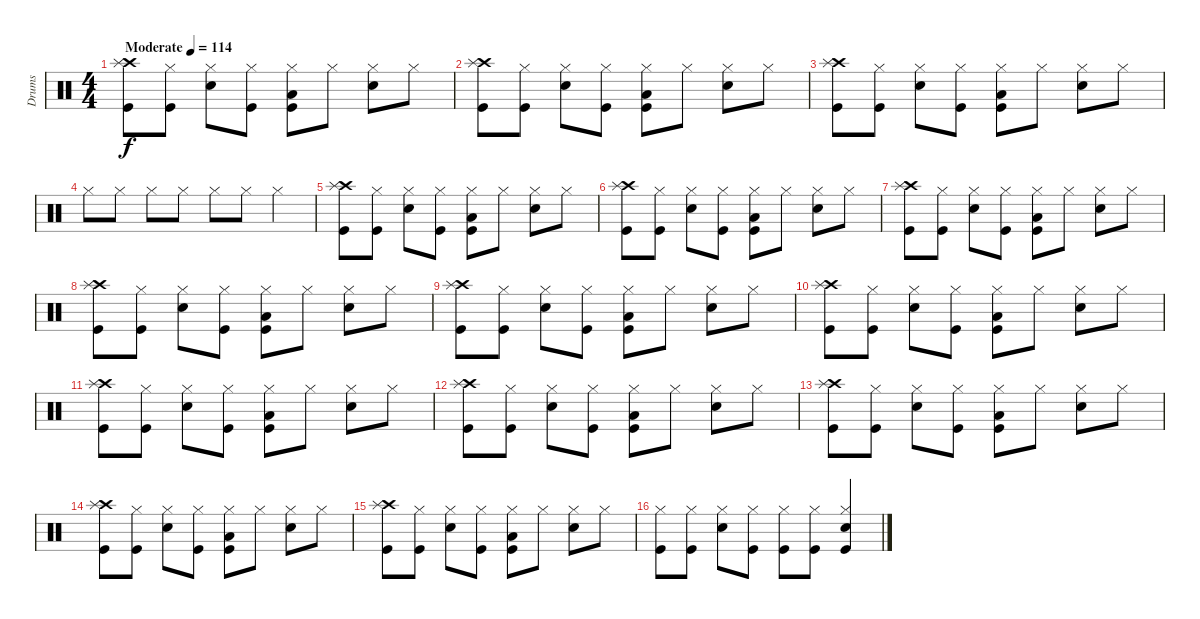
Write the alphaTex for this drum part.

\track ("Drums" "Drums") {instrument percussion}
\staff {score}
\articulation defaults
\ts (4 4)
\tempo (114 "Moderate")
\clef neutral
\ks c
("Crash high (hit)" "Splash (hit)" "Kick (hit)").8{dy f} ("Hi-Hat (closed)" "Kick (hit)").8 ("Hi-Hat (closed)" "Snare (hit) 2").8 ("Hi-Hat (closed)" "Kick (hit)").8 ("Hi-Hat (closed)" "Low Floor Tom (hit)" "Kick (hit)").8 "Hi-Hat (closed)".8 ("Hi-Hat (closed)" "Snare (hit) 2").8 "Hi-Hat (closed)".8 |
("Crash high (hit)" "Splash (hit)" "Kick (hit)").8 ("Hi-Hat (closed)" "Kick (hit)").8 ("Hi-Hat (closed)" "Snare (hit) 2").8 ("Hi-Hat (closed)" "Kick (hit)").8 ("Hi-Hat (closed)" "Low Floor Tom (hit)" "Kick (hit)").8 "Hi-Hat (closed)".8 ("Hi-Hat (closed)" "Snare (hit) 2").8 "Hi-Hat (closed)".8 |
("Crash high (hit)" "Splash (hit)" "Kick (hit)").8 ("Hi-Hat (closed)" "Kick (hit)").8 ("Hi-Hat (closed)" "Snare (hit) 2").8 ("Hi-Hat (closed)" "Kick (hit)").8 ("Hi-Hat (closed)" "Low Floor Tom (hit)" "Kick (hit)").8 "Hi-Hat (closed)".8 ("Hi-Hat (closed)" "Snare (hit) 2").8 "Hi-Hat (closed)".8 |
"Hi-Hat (closed)".8 "Hi-Hat (closed)".8 "Hi-Hat (closed)".8 "Hi-Hat (closed)".8 "Hi-Hat (closed)".8 "Hi-Hat (closed)".8 "Hi-Hat (closed)".4 |
("Crash high (hit)" "Splash (hit)" "Kick (hit)").8 ("Hi-Hat (closed)" "Kick (hit)").8 ("Hi-Hat (closed)" "Snare (hit) 2").8 ("Hi-Hat (closed)" "Kick (hit)").8 ("Hi-Hat (closed)" "Low Floor Tom (hit)" "Kick (hit)").8 "Hi-Hat (closed)".8 ("Hi-Hat (closed)" "Snare (hit) 2").8 "Hi-Hat (closed)".8 |
("Crash high (hit)" "Splash (hit)" "Kick (hit)").8 ("Hi-Hat (closed)" "Kick (hit)").8 ("Hi-Hat (closed)" "Snare (hit) 2").8 ("Hi-Hat (closed)" "Kick (hit)").8 ("Hi-Hat (closed)" "Low Floor Tom (hit)" "Kick (hit)").8 "Hi-Hat (closed)".8 ("Hi-Hat (closed)" "Snare (hit) 2").8 "Hi-Hat (closed)".8 |
("Crash high (hit)" "Splash (hit)" "Kick (hit)").8 ("Hi-Hat (closed)" "Kick (hit)").8 ("Hi-Hat (closed)" "Snare (hit) 2").8 ("Hi-Hat (closed)" "Kick (hit)").8 ("Hi-Hat (closed)" "Low Floor Tom (hit)" "Kick (hit)").8 "Hi-Hat (closed)".8 ("Hi-Hat (closed)" "Snare (hit) 2").8 "Hi-Hat (closed)".8 |
("Crash high (hit)" "Splash (hit)" "Kick (hit)").8 ("Hi-Hat (closed)" "Kick (hit)").8 ("Hi-Hat (closed)" "Snare (hit) 2").8 ("Hi-Hat (closed)" "Kick (hit)").8 ("Hi-Hat (closed)" "Low Floor Tom (hit)" "Kick (hit)").8 "Hi-Hat (closed)".8 ("Hi-Hat (closed)" "Snare (hit) 2").8 "Hi-Hat (closed)".8 |
("Crash high (hit)" "Splash (hit)" "Kick (hit)").8 ("Hi-Hat (closed)" "Kick (hit)").8 ("Hi-Hat (closed)" "Snare (hit) 2").8 ("Hi-Hat (closed)" "Kick (hit)").8 ("Hi-Hat (closed)" "Low Floor Tom (hit)" "Kick (hit)").8 "Hi-Hat (closed)".8 ("Hi-Hat (closed)" "Snare (hit) 2").8 "Hi-Hat (closed)".8 |
("Crash high (hit)" "Splash (hit)" "Kick (hit)").8 ("Hi-Hat (closed)" "Kick (hit)").8 ("Hi-Hat (closed)" "Snare (hit) 2").8 ("Hi-Hat (closed)" "Kick (hit)").8 ("Hi-Hat (closed)" "Low Floor Tom (hit)" "Kick (hit)").8 "Hi-Hat (closed)".8 ("Hi-Hat (closed)" "Snare (hit) 2").8 "Hi-Hat (closed)".8 |
("Crash high (hit)" "Splash (hit)" "Kick (hit)").8 ("Hi-Hat (closed)" "Kick (hit)").8 ("Hi-Hat (closed)" "Snare (hit) 2").8 ("Hi-Hat (closed)" "Kick (hit)").8 ("Hi-Hat (closed)" "Low Floor Tom (hit)" "Kick (hit)").8 "Hi-Hat (closed)".8 ("Hi-Hat (closed)" "Snare (hit) 2").8 "Hi-Hat (closed)".8 |
("Crash high (hit)" "Splash (hit)" "Kick (hit)").8 ("Hi-Hat (closed)" "Kick (hit)").8 ("Hi-Hat (closed)" "Snare (hit) 2").8 ("Hi-Hat (closed)" "Kick (hit)").8 ("Hi-Hat (closed)" "Low Floor Tom (hit)" "Kick (hit)").8 "Hi-Hat (closed)".8 ("Hi-Hat (closed)" "Snare (hit) 2").8 "Hi-Hat (closed)".8 |
("Crash high (hit)" "Splash (hit)" "Kick (hit)").8 ("Hi-Hat (closed)" "Kick (hit)").8 ("Hi-Hat (closed)" "Snare (hit) 2").8 ("Hi-Hat (closed)" "Kick (hit)").8 ("Hi-Hat (closed)" "Low Floor Tom (hit)" "Kick (hit)").8 "Hi-Hat (closed)".8 ("Hi-Hat (closed)" "Snare (hit) 2").8 "Hi-Hat (closed)".8 |
("Crash high (hit)" "Splash (hit)" "Kick (hit)").8 ("Hi-Hat (closed)" "Kick (hit)").8 ("Hi-Hat (closed)" "Snare (hit) 2").8 ("Hi-Hat (closed)" "Kick (hit)").8 ("Hi-Hat (closed)" "Low Floor Tom (hit)" "Kick (hit)").8 "Hi-Hat (closed)".8 ("Hi-Hat (closed)" "Snare (hit) 2").8 "Hi-Hat (closed)".8 |
("Crash high (hit)" "Splash (hit)" "Kick (hit)").8 ("Hi-Hat (closed)" "Kick (hit)").8 ("Hi-Hat (closed)" "Snare (hit) 2").8 ("Hi-Hat (closed)" "Kick (hit)").8 ("Hi-Hat (closed)" "Low Floor Tom (hit)" "Kick (hit)").8 "Hi-Hat (closed)".8 ("Hi-Hat (closed)" "Snare (hit) 2").8 "Hi-Hat (closed)".8 |
("Hi-Hat (closed)" "Kick (hit)").8 ("Hi-Hat (closed)" "Kick (hit)").8 ("Hi-Hat (closed)" "Snare (hit) 2").8 ("Hi-Hat (closed)" "Kick (hit)").8 ("Hi-Hat (closed)" "Kick (hit)").8 ("Hi-Hat (closed)" "Kick (hit)").8 ("Hi-Hat (closed)" "Snare (hit) 2" "Kick (hit)").4
